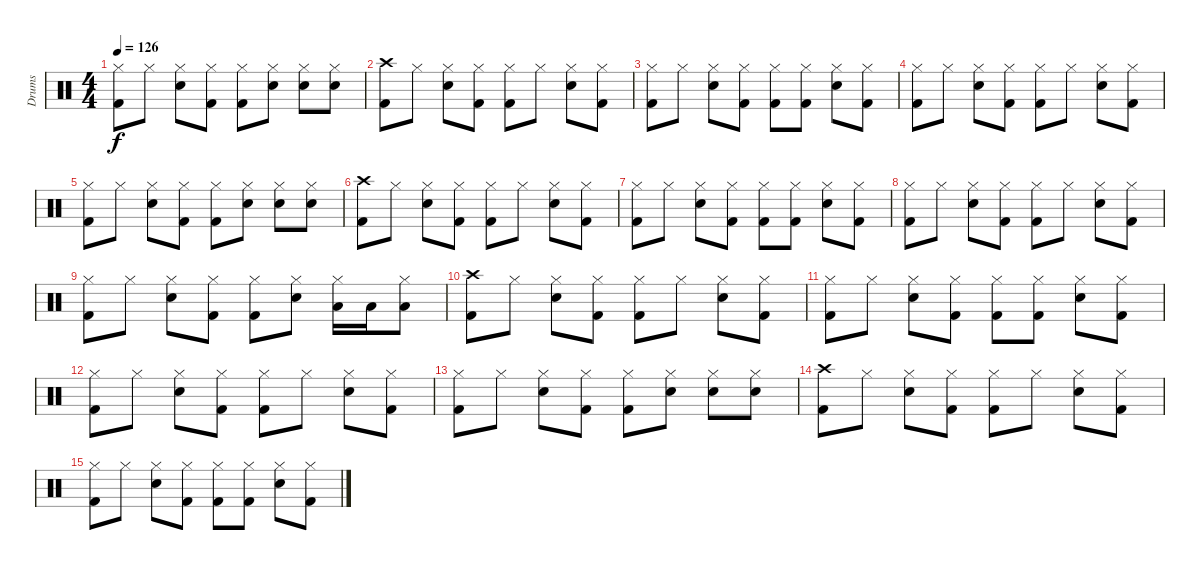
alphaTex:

\track ("Drums" "Drums") {instrument percussion}
\staff {score}
\articulation defaults
\ts (4 4)
\tempo 126
\clef neutral
\ks c
("Kick (hit) 2" "Hi-Hat (closed)").8{dy f} "Hi-Hat (closed)".8 ("Snare (hit) 2" "Hi-Hat (closed)").8 ("Kick (hit) 2" "Hi-Hat (closed)").8 ("Kick (hit) 2" "Hi-Hat (closed)").8 ("Snare (hit) 2" "Hi-Hat (closed)").8 ("Snare (hit) 2" "Hi-Hat (closed)").8 ("Snare (hit) 2" "Hi-Hat (closed)").8 |
("Kick (hit) 2" "Crash high (hit)").8 "Hi-Hat (closed)".8 ("Snare (hit) 2" "Hi-Hat (closed)").8 ("Kick (hit) 2" "Hi-Hat (closed)").8 ("Kick (hit) 2" "Hi-Hat (closed)").8 "Hi-Hat (closed)".8 ("Snare (hit) 2" "Hi-Hat (closed)").8 ("Kick (hit) 2" "Hi-Hat (closed)").8 |
("Kick (hit) 2" "Hi-Hat (closed)").8 "Hi-Hat (closed)".8 ("Snare (hit) 2" "Hi-Hat (closed)").8 ("Kick (hit) 2" "Hi-Hat (closed)").8 ("Kick (hit) 2" "Hi-Hat (closed)").8 ("Kick (hit) 2" "Hi-Hat (closed)").8 ("Snare (hit) 2" "Hi-Hat (closed)").8 ("Kick (hit) 2" "Hi-Hat (closed)").8 |
("Kick (hit) 2" "Hi-Hat (closed)").8 "Hi-Hat (closed)".8 ("Snare (hit) 2" "Hi-Hat (closed)").8 ("Kick (hit) 2" "Hi-Hat (closed)").8 ("Kick (hit) 2" "Hi-Hat (closed)").8 "Hi-Hat (closed)".8 ("Snare (hit) 2" "Hi-Hat (closed)").8 ("Kick (hit) 2" "Hi-Hat (closed)").8 |
("Kick (hit) 2" "Hi-Hat (closed)").8 "Hi-Hat (closed)".8 ("Snare (hit) 2" "Hi-Hat (closed)").8 ("Kick (hit) 2" "Hi-Hat (closed)").8 ("Kick (hit) 2" "Hi-Hat (closed)").8 ("Snare (hit) 2" "Hi-Hat (closed)").8 ("Snare (hit) 2" "Hi-Hat (closed)").8 ("Snare (hit) 2" "Hi-Hat (closed)").8 |
("Kick (hit) 2" "Crash high (hit)").8 "Hi-Hat (closed)".8 ("Snare (hit) 2" "Hi-Hat (closed)").8 ("Kick (hit) 2" "Hi-Hat (closed)").8 ("Kick (hit) 2" "Hi-Hat (closed)").8 "Hi-Hat (closed)".8 ("Snare (hit) 2" "Hi-Hat (closed)").8 ("Kick (hit) 2" "Hi-Hat (closed)").8 |
("Kick (hit) 2" "Hi-Hat (closed)").8 "Hi-Hat (closed)".8 ("Snare (hit) 2" "Hi-Hat (closed)").8 ("Kick (hit) 2" "Hi-Hat (closed)").8 ("Kick (hit) 2" "Hi-Hat (closed)").8 ("Kick (hit) 2" "Hi-Hat (closed)").8 ("Snare (hit) 2" "Hi-Hat (closed)").8 ("Kick (hit) 2" "Hi-Hat (closed)").8 |
("Kick (hit) 2" "Hi-Hat (closed)").8 "Hi-Hat (closed)".8 ("Snare (hit) 2" "Hi-Hat (closed)").8 ("Kick (hit) 2" "Hi-Hat (closed)").8 ("Kick (hit) 2" "Hi-Hat (closed)").8 "Hi-Hat (closed)".8 ("Snare (hit) 2" "Hi-Hat (closed)").8 ("Kick (hit) 2" "Hi-Hat (closed)").8 |
("Kick (hit) 2" "Hi-Hat (closed)").8 "Hi-Hat (closed)".8 ("Snare (hit) 2" "Hi-Hat (closed)").8 ("Kick (hit) 2" "Hi-Hat (closed)").8 ("Kick (hit) 2" "Hi-Hat (closed)").8 ("Snare (hit) 2" "Hi-Hat (closed)").8 ("Hi-Hat (closed)" "Low Tom (hit)").16 "Low Tom (hit)".16 ("Hi-Hat (closed)" "Low Tom (hit)").8 |
("Kick (hit) 2" "Crash high (hit)").8{volume 9} "Hi-Hat (closed)".8 ("Snare (hit) 2" "Hi-Hat (closed)").8 ("Kick (hit) 2" "Hi-Hat (closed)").8 ("Kick (hit) 2" "Hi-Hat (closed)").8 "Hi-Hat (closed)".8 ("Snare (hit) 2" "Hi-Hat (closed)").8 ("Kick (hit) 2" "Hi-Hat (closed)").8 |
("Kick (hit) 2" "Hi-Hat (closed)").8 "Hi-Hat (closed)".8 ("Snare (hit) 2" "Hi-Hat (closed)").8 ("Kick (hit) 2" "Hi-Hat (closed)").8 ("Kick (hit) 2" "Hi-Hat (closed)").8 ("Kick (hit) 2" "Hi-Hat (closed)").8 ("Snare (hit) 2" "Hi-Hat (closed)").8 ("Kick (hit) 2" "Hi-Hat (closed)").8 |
("Kick (hit) 2" "Hi-Hat (closed)").8{volume 4} "Hi-Hat (closed)".8 ("Snare (hit) 2" "Hi-Hat (closed)").8 ("Kick (hit) 2" "Hi-Hat (closed)").8 ("Kick (hit) 2" "Hi-Hat (closed)").8 "Hi-Hat (closed)".8 ("Snare (hit) 2" "Hi-Hat (closed)").8 ("Kick (hit) 2" "Hi-Hat (closed)").8 |
("Kick (hit) 2" "Hi-Hat (closed)").8 "Hi-Hat (closed)".8 ("Snare (hit) 2" "Hi-Hat (closed)").8 ("Kick (hit) 2" "Hi-Hat (closed)").8 ("Kick (hit) 2" "Hi-Hat (closed)").8 ("Snare (hit) 2" "Hi-Hat (closed)").8 ("Snare (hit) 2" "Hi-Hat (closed)").8 ("Snare (hit) 2" "Hi-Hat (closed)").8 |
("Kick (hit) 2" "Crash high (hit)").8{volume 0} "Hi-Hat (closed)".8 ("Snare (hit) 2" "Hi-Hat (closed)").8 ("Kick (hit) 2" "Hi-Hat (closed)").8 ("Kick (hit) 2" "Hi-Hat (closed)").8 "Hi-Hat (closed)".8 ("Snare (hit) 2" "Hi-Hat (closed)").8 ("Kick (hit) 2" "Hi-Hat (closed)").8 |
("Kick (hit) 2" "Hi-Hat (closed)").8 "Hi-Hat (closed)".8 ("Snare (hit) 2" "Hi-Hat (closed)").8 ("Kick (hit) 2" "Hi-Hat (closed)").8 ("Kick (hit) 2" "Hi-Hat (closed)").8 ("Kick (hit) 2" "Hi-Hat (closed)").8 ("Snare (hit) 2" "Hi-Hat (closed)").8 ("Kick (hit) 2" "Hi-Hat (closed)").8
